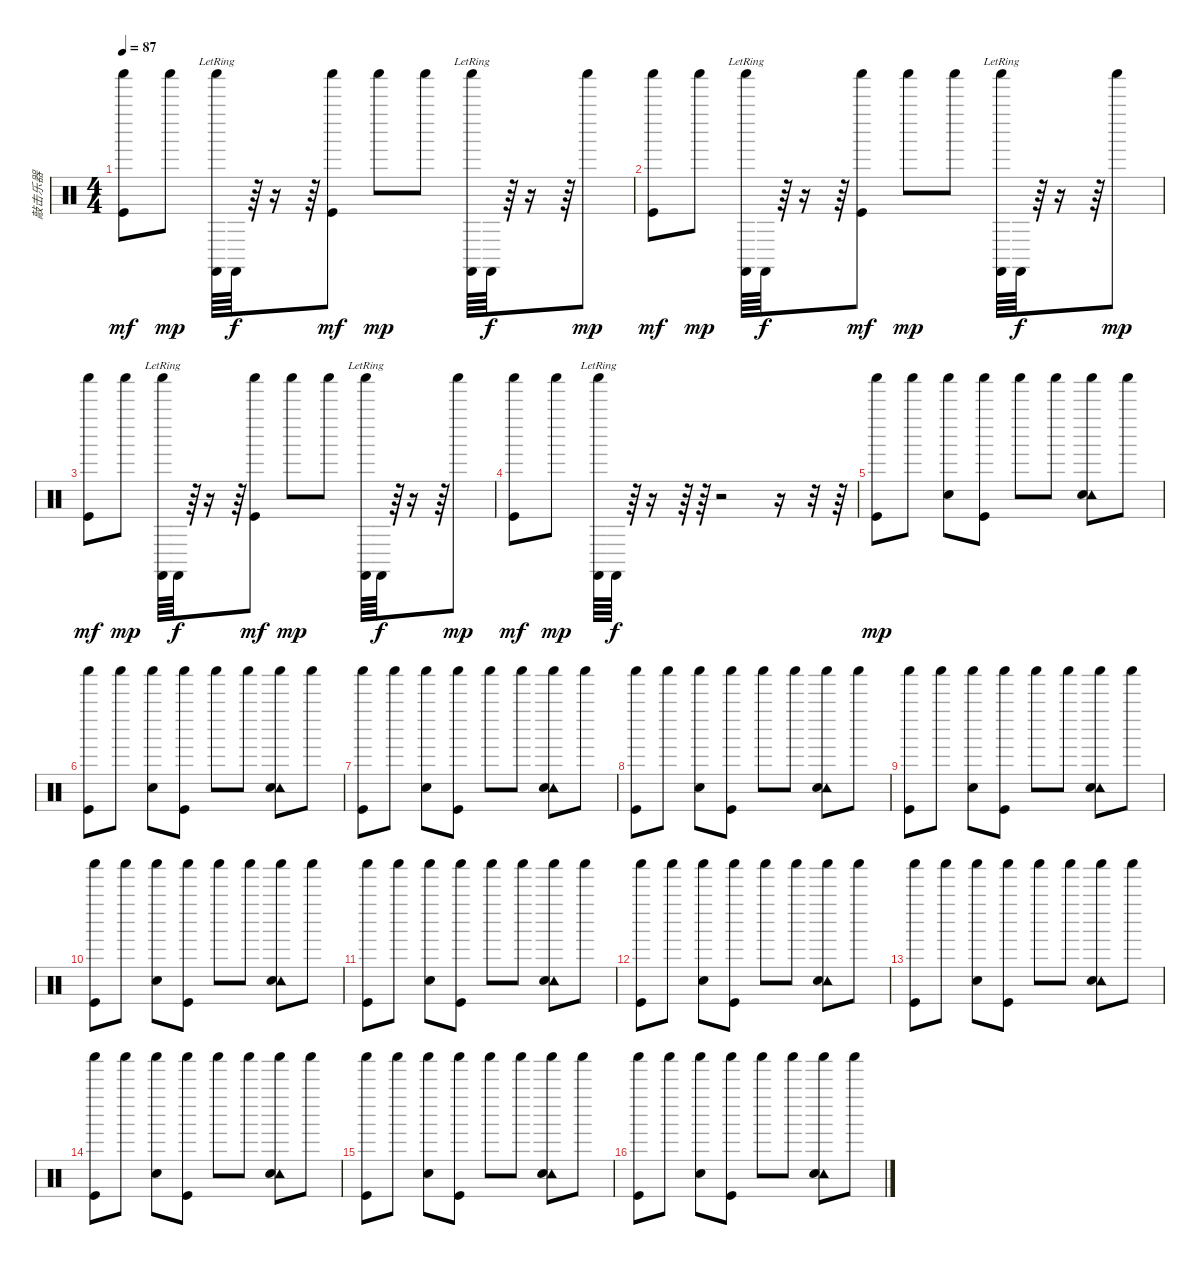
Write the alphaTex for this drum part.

\track ("敲击乐器" "敲击乐器") {instrument percussion}
\staff {score}
\articulation defaults
\ts (4 4)
\tempo 87
\clef neutral
\ks c
("Shaker (hit)" "Kick (hit)").8{dy mf} "Shaker (hit)".8{dy mp} ("Shaker (hit)"{lr} "Castanets (hit)").64 "Castanets (hit)".64{dy f} r.64 r.16 r.64 ("Shaker (hit)" "Kick (hit)").8{dy mf} "Shaker (hit)".8{dy mp} "Shaker (hit)".8 ("Shaker (hit)"{lr} "Castanets (hit)").64 "Castanets (hit)".64{dy f} r.64 r.16 r.64 "Shaker (hit)".8{dy mp} |
("Shaker (hit)" "Kick (hit)").8{dy mf} "Shaker (hit)".8{dy mp} ("Shaker (hit)"{lr} "Castanets (hit)").64 "Castanets (hit)".64{dy f} r.64 r.16 r.64 ("Shaker (hit)" "Kick (hit)").8{dy mf} "Shaker (hit)".8{dy mp} "Shaker (hit)".8 ("Shaker (hit)"{lr} "Castanets (hit)").64 "Castanets (hit)".64{dy f} r.64 r.16 r.64 "Shaker (hit)".8{dy mp} |
("Shaker (hit)" "Kick (hit)").8{dy mf} "Shaker (hit)".8{dy mp} ("Shaker (hit)"{lr} "Castanets (hit)").64 "Castanets (hit)".64{dy f} r.64 r.16 r.64 ("Shaker (hit)" "Kick (hit)").8{dy mf} "Shaker (hit)".8{dy mp} "Shaker (hit)".8 ("Shaker (hit)"{lr} "Castanets (hit)").64 "Castanets (hit)".64{dy f} r.64 r.16 r.64 "Shaker (hit)".8{dy mp} |
("Shaker (hit)" "Kick (hit)").8{dy mf} "Shaker (hit)".8{dy mp} ("Shaker (hit)"{lr} "Castanets (hit)").64 "Castanets (hit)".64{dy f} r.64 r.16 r.64 r.64 r.2 r.16 r.32 r.64 |
("Shaker (hit)" "Kick (hit)").8{dy mp} "Shaker (hit)".8 ("Shaker (hit)" "Hand Clap (hit)").8 ("Shaker (hit)" "Kick (hit)").8 "Shaker (hit)".8 "Shaker (hit)".8 ("Shaker (hit)" "Tambourine (hit)" "Hand Clap (hit)").8 "Shaker (hit)".8 |
("Shaker (hit)" "Kick (hit)").8 "Shaker (hit)".8 ("Shaker (hit)" "Hand Clap (hit)").8 ("Shaker (hit)" "Kick (hit)").8 "Shaker (hit)".8 "Shaker (hit)".8 ("Shaker (hit)" "Tambourine (hit)" "Hand Clap (hit)").8 "Shaker (hit)".8 |
("Shaker (hit)" "Kick (hit)").8 "Shaker (hit)".8 ("Shaker (hit)" "Hand Clap (hit)").8 ("Shaker (hit)" "Kick (hit)").8 "Shaker (hit)".8 "Shaker (hit)".8 ("Shaker (hit)" "Tambourine (hit)" "Hand Clap (hit)").8 "Shaker (hit)".8 |
("Shaker (hit)" "Kick (hit)").8 "Shaker (hit)".8 ("Shaker (hit)" "Hand Clap (hit)").8 ("Shaker (hit)" "Kick (hit)").8 "Shaker (hit)".8 "Shaker (hit)".8 ("Shaker (hit)" "Tambourine (hit)" "Hand Clap (hit)").8 "Shaker (hit)".8 |
("Shaker (hit)" "Kick (hit)").8 "Shaker (hit)".8 ("Shaker (hit)" "Hand Clap (hit)").8 ("Shaker (hit)" "Kick (hit)").8 "Shaker (hit)".8 "Shaker (hit)".8 ("Shaker (hit)" "Tambourine (hit)" "Hand Clap (hit)").8 "Shaker (hit)".8 |
("Shaker (hit)" "Kick (hit)").8 "Shaker (hit)".8 ("Shaker (hit)" "Hand Clap (hit)").8 ("Shaker (hit)" "Kick (hit)").8 "Shaker (hit)".8 "Shaker (hit)".8 ("Shaker (hit)" "Tambourine (hit)" "Hand Clap (hit)").8 "Shaker (hit)".8 |
("Shaker (hit)" "Kick (hit)").8 "Shaker (hit)".8 ("Shaker (hit)" "Hand Clap (hit)").8 ("Shaker (hit)" "Kick (hit)").8 "Shaker (hit)".8 "Shaker (hit)".8 ("Shaker (hit)" "Tambourine (hit)" "Hand Clap (hit)").8 "Shaker (hit)".8 |
("Shaker (hit)" "Kick (hit)").8 "Shaker (hit)".8 ("Shaker (hit)" "Hand Clap (hit)").8 ("Shaker (hit)" "Kick (hit)").8 "Shaker (hit)".8 "Shaker (hit)".8 ("Shaker (hit)" "Tambourine (hit)" "Hand Clap (hit)").8 "Shaker (hit)".8 |
("Shaker (hit)" "Kick (hit)").8 "Shaker (hit)".8 ("Shaker (hit)" "Hand Clap (hit)").8 ("Shaker (hit)" "Kick (hit)").8 "Shaker (hit)".8 "Shaker (hit)".8 ("Shaker (hit)" "Tambourine (hit)" "Hand Clap (hit)").8 "Shaker (hit)".8 |
("Shaker (hit)" "Kick (hit)").8 "Shaker (hit)".8 ("Shaker (hit)" "Hand Clap (hit)").8 ("Shaker (hit)" "Kick (hit)").8 "Shaker (hit)".8 "Shaker (hit)".8 ("Shaker (hit)" "Tambourine (hit)" "Hand Clap (hit)").8 "Shaker (hit)".8 |
("Shaker (hit)" "Kick (hit)").8 "Shaker (hit)".8 ("Shaker (hit)" "Hand Clap (hit)").8 ("Shaker (hit)" "Kick (hit)").8 "Shaker (hit)".8 "Shaker (hit)".8 ("Shaker (hit)" "Tambourine (hit)" "Hand Clap (hit)").8 "Shaker (hit)".8 |
("Shaker (hit)" "Kick (hit)").8 "Shaker (hit)".8 ("Shaker (hit)" "Hand Clap (hit)").8 ("Shaker (hit)" "Kick (hit)").8 "Shaker (hit)".8 "Shaker (hit)".8 ("Shaker (hit)" "Tambourine (hit)" "Hand Clap (hit)").8 "Shaker (hit)".8
